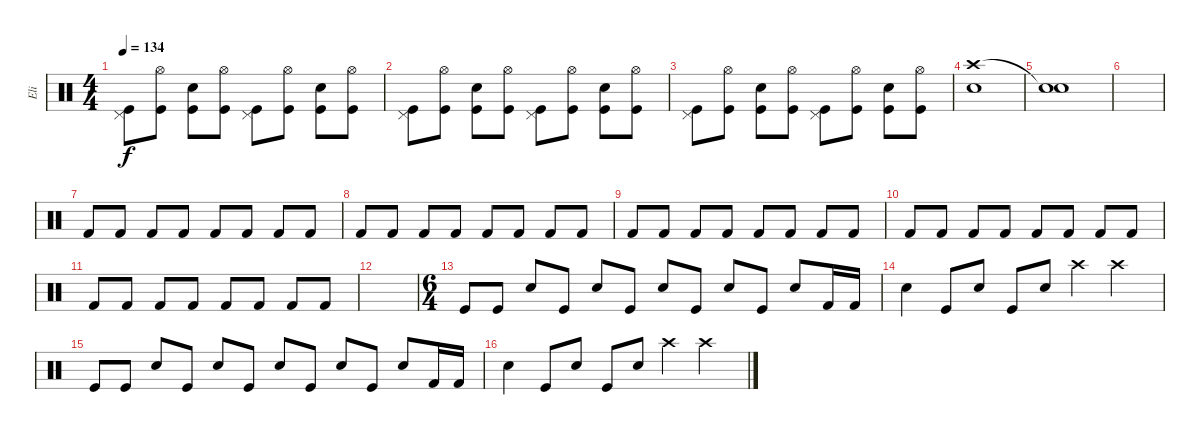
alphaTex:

\track ("Eli" "Eli") {instrument percussion}
\staff {score}
\articulation defaults
\ts (4 4)
\tempo 134
\clef neutral
\ks c
("Pedal Hi-Hat (hit)" "Kick (hit)").8{dy f} ("Hi-Hat (open)" "Kick (hit)").8 ("Electric Snare (hit)" "Kick (hit)").8 ("Hi-Hat (open)" "Kick (hit)").8 ("Pedal Hi-Hat (hit)" "Kick (hit)").8 ("Hi-Hat (open)" "Kick (hit)").8 ("Electric Snare (hit)" "Kick (hit)").8 ("Hi-Hat (open)" "Kick (hit)").8 |
("Pedal Hi-Hat (hit)" "Kick (hit)").8 ("Hi-Hat (open)" "Kick (hit)").8 ("Electric Snare (hit)" "Kick (hit)").8 ("Hi-Hat (open)" "Kick (hit)").8 ("Pedal Hi-Hat (hit)" "Kick (hit)").8 ("Hi-Hat (open)" "Kick (hit)").8 ("Electric Snare (hit)" "Kick (hit)").8 ("Hi-Hat (open)" "Kick (hit)").8 |
("Pedal Hi-Hat (hit)" "Kick (hit)").8 ("Hi-Hat (open)" "Kick (hit)").8 ("Electric Snare (hit)" "Kick (hit)").8 ("Hi-Hat (open)" "Kick (hit)").8 ("Pedal Hi-Hat (hit)" "Kick (hit)").8 ("Hi-Hat (open)" "Kick (hit)").8 ("Electric Snare (hit)" "Kick (hit)").8 ("Hi-Hat (open)" "Kick (hit)").8 |
("Electric Snare (hit)" "Crash high (hit)").1 |
("Electric Snare (hit)" "Snare (hit)"{t}).1 |
|
"Kick (hit) 2".8 "Kick (hit) 2".8 "Kick (hit) 2".8 "Kick (hit) 2".8 "Kick (hit) 2".8 "Kick (hit) 2".8 "Kick (hit) 2".8 "Kick (hit) 2".8 |
"Kick (hit) 2".8 "Kick (hit) 2".8 "Kick (hit) 2".8 "Kick (hit) 2".8 "Kick (hit) 2".8 "Kick (hit) 2".8 "Kick (hit) 2".8 "Kick (hit) 2".8 |
"Kick (hit) 2".8 "Kick (hit) 2".8 "Kick (hit) 2".8 "Kick (hit) 2".8 "Kick (hit) 2".8 "Kick (hit) 2".8 "Kick (hit) 2".8 "Kick (hit) 2".8 |
"Kick (hit) 2".8 "Kick (hit) 2".8 "Kick (hit) 2".8 "Kick (hit) 2".8 "Kick (hit) 2".8 "Kick (hit) 2".8 "Kick (hit) 2".8 "Kick (hit) 2".8 |
"Kick (hit) 2".8 "Kick (hit) 2".8 "Kick (hit) 2".8 "Kick (hit) 2".8 "Kick (hit) 2".8 "Kick (hit) 2".8 "Kick (hit) 2".8 "Kick (hit) 2".8 |
|
\ts (6 4)
"Kick (hit)".8 "Kick (hit)".8 "Electric Snare (hit)".8 "Kick (hit)".8 "Electric Snare (hit)".8 "Kick (hit)".8 "Electric Snare (hit)".8 "Kick (hit)".8 "Electric Snare (hit)".8 "Kick (hit)".8 "Electric Snare (hit)".8 "Kick (hit) 2".16 "Kick (hit) 2".16 |
"Electric Snare (hit)".4 "Kick (hit)".8 "Electric Snare (hit)".8 "Kick (hit)".8 "Electric Snare (hit)".8 "Crash high (hit)".4 "Crash high (hit)".2 |
"Kick (hit)".8 "Kick (hit)".8 "Electric Snare (hit)".8 "Kick (hit)".8 "Electric Snare (hit)".8 "Kick (hit)".8 "Electric Snare (hit)".8 "Kick (hit)".8 "Electric Snare (hit)".8 "Kick (hit)".8 "Electric Snare (hit)".8 "Kick (hit) 2".16 "Kick (hit) 2".16 |
"Electric Snare (hit)".4 "Kick (hit)".8 "Electric Snare (hit)".8 "Kick (hit)".8 "Electric Snare (hit)".8 "Crash high (hit)".4 "Crash high (hit)".2
